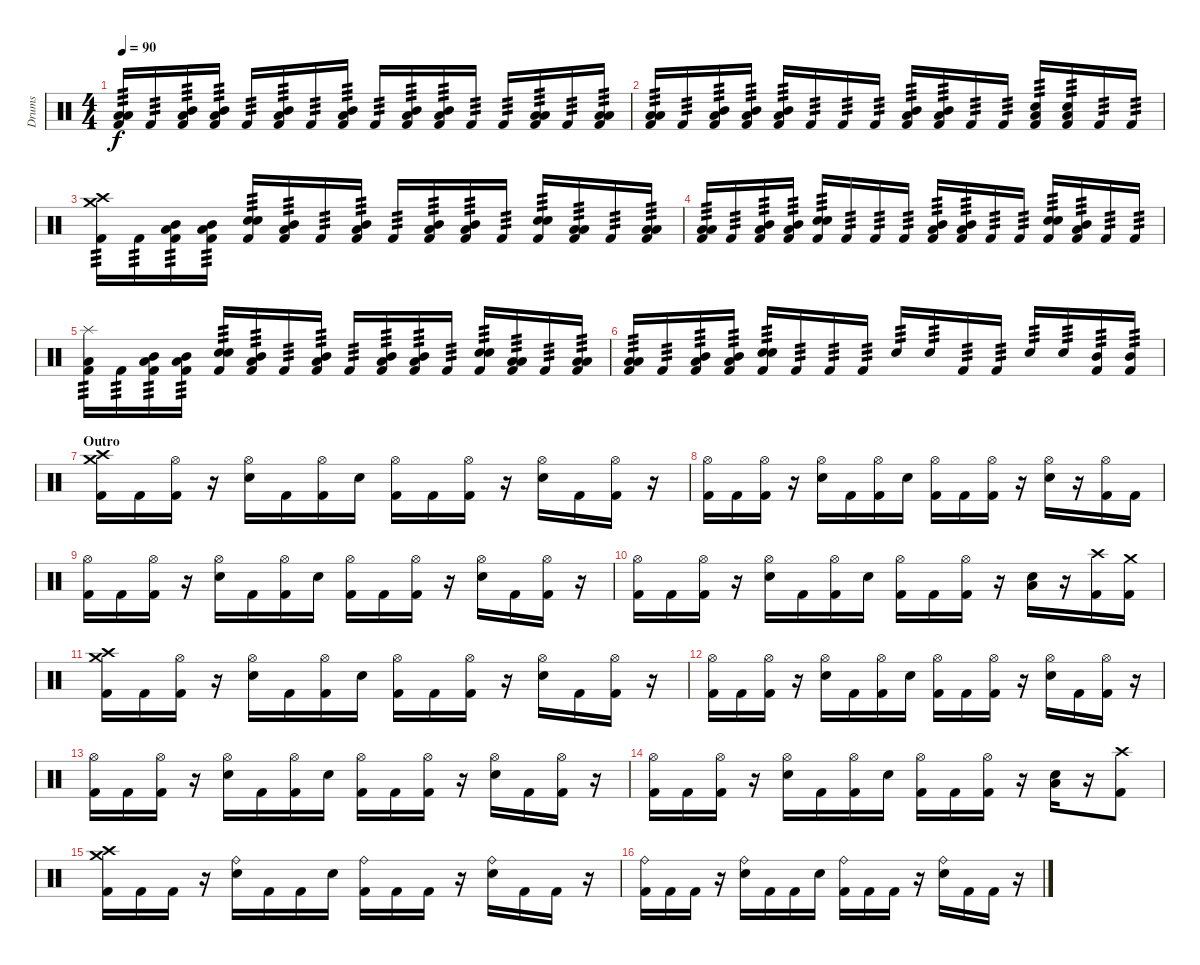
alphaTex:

\track ("Drums" "Drums") {instrument percussion}
\staff {score}
\articulation defaults
\ts (4 4)
\tempo 90
\clef neutral
\ks c
("Low Tom (hit)" "Low Floor Tom (hit)" "Kick (hit) 2").16{tp 3 dy f} "Kick (hit) 2".16{tp 3} ("Mid Tom (hit)" "Low Tom (hit)" "Kick (hit) 2").16{tp 3} ("Mid Tom (hit)" "Low Tom (hit)" "Kick (hit) 2").16{tp 3} "Kick (hit) 2".16{tp 3} ("Mid Tom (hit)" "Low Tom (hit)" "Kick (hit) 2").16{tp 3} "Kick (hit) 2".16{tp 3} ("Mid Tom (hit)" "Low Tom (hit)" "Kick (hit) 2").16{tp 3} "Kick (hit) 2".16{tp 3} ("Mid Tom (hit)" "Low Tom (hit)" "Kick (hit) 2").16{tp 3} ("Mid Tom (hit)" "Low Tom (hit)" "Kick (hit) 2").16{tp 3} "Kick (hit) 2".16{tp 3} "Kick (hit) 2".16{tp 3} ("Low Tom (hit)" "Low Floor Tom (hit)" "Kick (hit) 2").16{tp 3} "Kick (hit) 2".16{tp 3} ("Low Tom (hit)" "Low Floor Tom (hit)" "Kick (hit) 2").16{tp 3} |
("Low Tom (hit)" "Low Floor Tom (hit)" "Kick (hit) 2").16{tp 3} "Kick (hit) 2".16{tp 3} ("Mid Tom (hit)" "Low Tom (hit)" "Kick (hit) 2").16{tp 3} ("Mid Tom (hit)" "Low Tom (hit)" "Kick (hit) 2").16{tp 3} ("Mid Tom (hit)" "Low Tom (hit)" "Kick (hit) 2").16{tp 3} "Kick (hit) 2".16{tp 3} "Kick (hit) 2".16{tp 3} "Kick (hit) 2".16{tp 3} ("Mid Tom (hit)" "Low Tom (hit)" "Kick (hit) 2").16{tp 3} ("Mid Tom (hit)" "Low Tom (hit)" "Kick (hit) 2").16{tp 3} "Kick (hit) 2".16{tp 3} "Kick (hit) 2".16{tp 3} ("Snare (hit) 2" "Low Tom (hit)" "Kick (hit) 2").16{tp 3} ("Snare (hit) 2" "Low Tom (hit)" "Kick (hit) 2").16{tp 3} "Kick (hit) 2".16{tp 3} "Kick (hit) 2".16{tp 3} |
("Crash high (hit)" "Crash medium (hit)" "Kick (hit) 2").16{tp 3} "Kick (hit) 2".16{tp 3} ("Mid Tom (hit)" "Low Tom (hit)" "Kick (hit) 2").16{tp 3} ("Mid Tom (hit)" "Low Tom (hit)" "Kick (hit) 2").16{tp 3} ("Snare (hit) 2" "Snare (hit) 2" "Kick (hit) 2").16{tp 3} ("Mid Tom (hit)" "Low Tom (hit)" "Kick (hit) 2").16{tp 3} "Kick (hit) 2".16{tp 3} ("Mid Tom (hit)" "Low Tom (hit)" "Kick (hit) 2").16{tp 3} "Kick (hit) 2".16{tp 3} ("Mid Tom (hit)" "Low Tom (hit)" "Kick (hit) 2").16{tp 3} ("Mid Tom (hit)" "Low Tom (hit)" "Kick (hit) 2").16{tp 3} "Kick (hit) 2".16{tp 3} ("Snare (hit) 2" "Snare (hit) 2" "Kick (hit) 2").16{tp 3} ("Low Tom (hit)" "Low Floor Tom (hit)" "Kick (hit) 2").16{tp 3} "Kick (hit) 2".16{tp 3} ("Low Tom (hit)" "Low Floor Tom (hit)" "Kick (hit) 2").16{tp 3} |
("Low Tom (hit)" "Low Floor Tom (hit)" "Kick (hit) 2").16{tp 3} "Kick (hit) 2".16{tp 3} ("Mid Tom (hit)" "Low Tom (hit)" "Kick (hit) 2").16{tp 3} ("Mid Tom (hit)" "Low Tom (hit)" "Kick (hit) 2").16{tp 3} ("Snare (hit) 2" "Snare (hit) 2" "Kick (hit) 2").16{tp 3} "Kick (hit) 2".16{tp 3} "Kick (hit) 2".16{tp 3} "Kick (hit) 2".16{tp 3} ("Mid Tom (hit)" "Low Tom (hit)" "Kick (hit) 2").16{tp 3} ("Mid Tom (hit)" "Low Tom (hit)" "Kick (hit) 2").16{tp 3} "Kick (hit) 2".16{tp 3} "Kick (hit) 2".16{tp 3} ("Snare (hit) 2" "Snare (hit) 2" "Kick (hit) 2").16{tp 3} ("Mid Tom (hit)" "Low Tom (hit)" "Kick (hit) 2").16{tp 3} "Kick (hit) 2".16{tp 3} "Kick (hit) 2".16{tp 3} |
("Splash (hit)" "Low Tom (hit)" "Kick (hit) 2").16{tp 3} "Kick (hit) 2".16{tp 3} ("Mid Tom (hit)" "Low Tom (hit)" "Kick (hit) 2").16{tp 3} ("Mid Tom (hit)" "Low Tom (hit)" "Kick (hit) 2").16{tp 3} ("Snare (hit) 2" "Snare (hit) 2" "Kick (hit) 2").16{tp 3} ("Mid Tom (hit)" "Low Tom (hit)" "Kick (hit) 2").16{tp 3} "Kick (hit) 2".16{tp 3} ("Mid Tom (hit)" "Low Tom (hit)" "Kick (hit) 2").16{tp 3} "Kick (hit) 2".16{tp 3} ("Mid Tom (hit)" "Low Tom (hit)" "Kick (hit) 2").16{tp 3} ("Mid Tom (hit)" "Low Tom (hit)" "Kick (hit) 2").16{tp 3} "Kick (hit) 2".16{tp 3} ("Snare (hit) 2" "Snare (hit) 2" "Kick (hit) 2").16{tp 3} ("Low Tom (hit)" "Low Floor Tom (hit)" "Kick (hit) 2").16{tp 3} "Kick (hit) 2".16{tp 3} ("Low Tom (hit)" "Low Floor Tom (hit)" "Kick (hit) 2").16{tp 3} |
("Low Tom (hit)" "Low Floor Tom (hit)" "Kick (hit) 2").16{tp 3} "Kick (hit) 2".16{tp 3} ("Mid Tom (hit)" "Low Tom (hit)" "Kick (hit) 2").16{tp 3} ("Mid Tom (hit)" "Low Tom (hit)" "Kick (hit) 2").16{tp 3} ("Snare (hit) 2" "Snare (hit) 2" "Kick (hit) 2").16{tp 3} "Kick (hit) 2".16{tp 3} "Kick (hit) 2".16{tp 3} "Kick (hit) 2".16{tp 3} "Snare (hit) 2".16{tp 3} "Snare (hit) 2".16{tp 3} "Kick (hit) 2".16{tp 3} "Kick (hit) 2".16{tp 3} "Snare (hit) 2".16{tp 3} "Snare (hit) 2".16{tp 3} ("Mid Tom (hit)" "Kick (hit) 2").16{tp 3} ("Mid Tom (hit)" "Kick (hit) 2").16{tp 3} |
\section ("" "Outro")
("Crash high (hit)" "Crash medium (hit)" "Kick (hit) 2").16 "Kick (hit) 2".16 ("Hi-Hat (open)" "Kick (hit) 2").16 r.16 ("Hi-Hat (open)" "Snare (hit) 2").16 "Kick (hit) 2".16 ("Hi-Hat (open)" "Kick (hit) 2").16 "Snare (hit) 2".16 ("Hi-Hat (open)" "Kick (hit) 2").16 "Kick (hit) 2".16 ("Hi-Hat (open)" "Kick (hit) 2").16 r.16 ("Hi-Hat (open)" "Snare (hit) 2").16 "Kick (hit) 2".16 ("Hi-Hat (open)" "Kick (hit) 2").16 r.16 |
("Hi-Hat (open)" "Kick (hit) 2").16 "Kick (hit) 2".16 ("Hi-Hat (open)" "Kick (hit) 2").16 r.16 ("Hi-Hat (open)" "Snare (hit) 2").16 "Kick (hit) 2".16 ("Hi-Hat (open)" "Kick (hit) 2").16 "Snare (hit) 2".16 ("Hi-Hat (open)" "Kick (hit) 2").16 "Kick (hit) 2".16 ("Hi-Hat (open)" "Kick (hit) 2").16 r.16 ("Hi-Hat (open)" "Snare (hit) 2").16 r.16 ("Hi-Hat (open)" "Kick (hit) 2").16 "Kick (hit) 2".16 |
("Hi-Hat (open)" "Kick (hit) 2").16 "Kick (hit) 2".16 ("Hi-Hat (open)" "Kick (hit) 2").16 r.16 ("Hi-Hat (open)" "Snare (hit) 2").16 "Kick (hit) 2".16 ("Hi-Hat (open)" "Kick (hit) 2").16 "Snare (hit) 2".16 ("Hi-Hat (open)" "Kick (hit) 2").16 "Kick (hit) 2".16 ("Hi-Hat (open)" "Kick (hit) 2").16 r.16 ("Hi-Hat (open)" "Snare (hit) 2").16 "Kick (hit) 2".16 ("Hi-Hat (open)" "Kick (hit) 2").16 r.16 |
("Hi-Hat (open)" "Kick (hit) 2").16 "Kick (hit) 2".16 ("Hi-Hat (open)" "Kick (hit) 2").16 r.16 ("Hi-Hat (open)" "Snare (hit) 2").16 "Kick (hit) 2".16 ("Hi-Hat (open)" "Kick (hit) 2").16 "Snare (hit) 2".16 ("Hi-Hat (open)" "Kick (hit) 2").16 "Kick (hit) 2".16 ("Hi-Hat (open)" "Kick (hit) 2").16 r.16 ("Snare (hit) 2" "Low Tom (hit)").16 r.16 ("Crash high (hit)" "Kick (hit) 2").16 ("Crash medium (hit)" "Kick (hit) 2").16 |
("Crash high (hit)" "Crash medium (hit)" "Kick (hit) 2").16 "Kick (hit) 2".16 ("Hi-Hat (open)" "Kick (hit) 2").16 r.16 ("Hi-Hat (open)" "Snare (hit) 2").16 "Kick (hit) 2".16 ("Hi-Hat (open)" "Kick (hit) 2").16 "Snare (hit) 2".16 ("Hi-Hat (open)" "Kick (hit) 2").16 "Kick (hit) 2".16 ("Hi-Hat (open)" "Kick (hit) 2").16 r.16 ("Hi-Hat (open)" "Snare (hit) 2").16 "Kick (hit) 2".16 ("Hi-Hat (open)" "Kick (hit) 2").16 r.16 |
("Hi-Hat (open)" "Kick (hit) 2").16 "Kick (hit) 2".16 ("Hi-Hat (open)" "Kick (hit) 2").16 r.16 ("Hi-Hat (open)" "Snare (hit) 2").16 "Kick (hit) 2".16 ("Hi-Hat (open)" "Kick (hit) 2").16 "Snare (hit) 2".16 ("Hi-Hat (open)" "Kick (hit) 2").16 "Kick (hit) 2".16 ("Hi-Hat (open)" "Kick (hit) 2").16 r.16 ("Hi-Hat (open)" "Snare (hit) 2").16 "Kick (hit) 2".16 ("Hi-Hat (open)" "Kick (hit) 2").16 r.16 |
("Hi-Hat (open)" "Kick (hit) 2").16 "Kick (hit) 2".16 ("Hi-Hat (open)" "Kick (hit) 2").16 r.16 ("Hi-Hat (open)" "Snare (hit) 2").16 "Kick (hit) 2".16 ("Hi-Hat (open)" "Kick (hit) 2").16 "Snare (hit) 2".16 ("Hi-Hat (open)" "Kick (hit) 2").16 "Kick (hit) 2".16 ("Hi-Hat (open)" "Kick (hit) 2").16 r.16 ("Hi-Hat (open)" "Snare (hit) 2").16 "Kick (hit) 2".16 ("Hi-Hat (open)" "Kick (hit) 2").16 r.16 |
("Hi-Hat (open)" "Kick (hit) 2").16 "Kick (hit) 2".16 ("Hi-Hat (open)" "Kick (hit) 2").16 r.16 ("Hi-Hat (open)" "Snare (hit) 2").16 "Kick (hit) 2".16 ("Hi-Hat (open)" "Kick (hit) 2").16 "Snare (hit) 2".16 ("Hi-Hat (open)" "Kick (hit) 2").16 "Kick (hit) 2".16 ("Hi-Hat (open)" "Kick (hit) 2").16 r.16 ("Snare (hit) 2" "Low Tom (hit)").16 r.16 ("Crash high (hit)" "Kick (hit) 2").8 |
("Crash high (hit)" "Crash medium (hit)" "Kick (hit) 2").16 "Kick (hit) 2".16 "Kick (hit) 2".16 r.16 ("Ride (bell)" "Snare (hit) 2").16 "Kick (hit) 2".16 "Kick (hit) 2".16 "Snare (hit) 2".16 ("Ride (bell)" "Kick (hit) 2").16 "Kick (hit) 2".16 "Kick (hit) 2".16 r.16 ("Ride (bell)" "Snare (hit) 2").16 "Kick (hit) 2".16 "Kick (hit) 2".16 r.16 |
("Ride (bell)" "Kick (hit) 2").16 "Kick (hit) 2".16 "Kick (hit) 2".16 r.16 ("Ride (bell)" "Snare (hit) 2").16 "Kick (hit) 2".16 "Kick (hit) 2".16 "Snare (hit) 2".16 ("Ride (bell)" "Kick (hit) 2").16 "Kick (hit) 2".16 "Kick (hit) 2".16 r.16 ("Ride (bell)" "Snare (hit) 2").16 "Kick (hit) 2".16 "Kick (hit) 2".16 r.16
